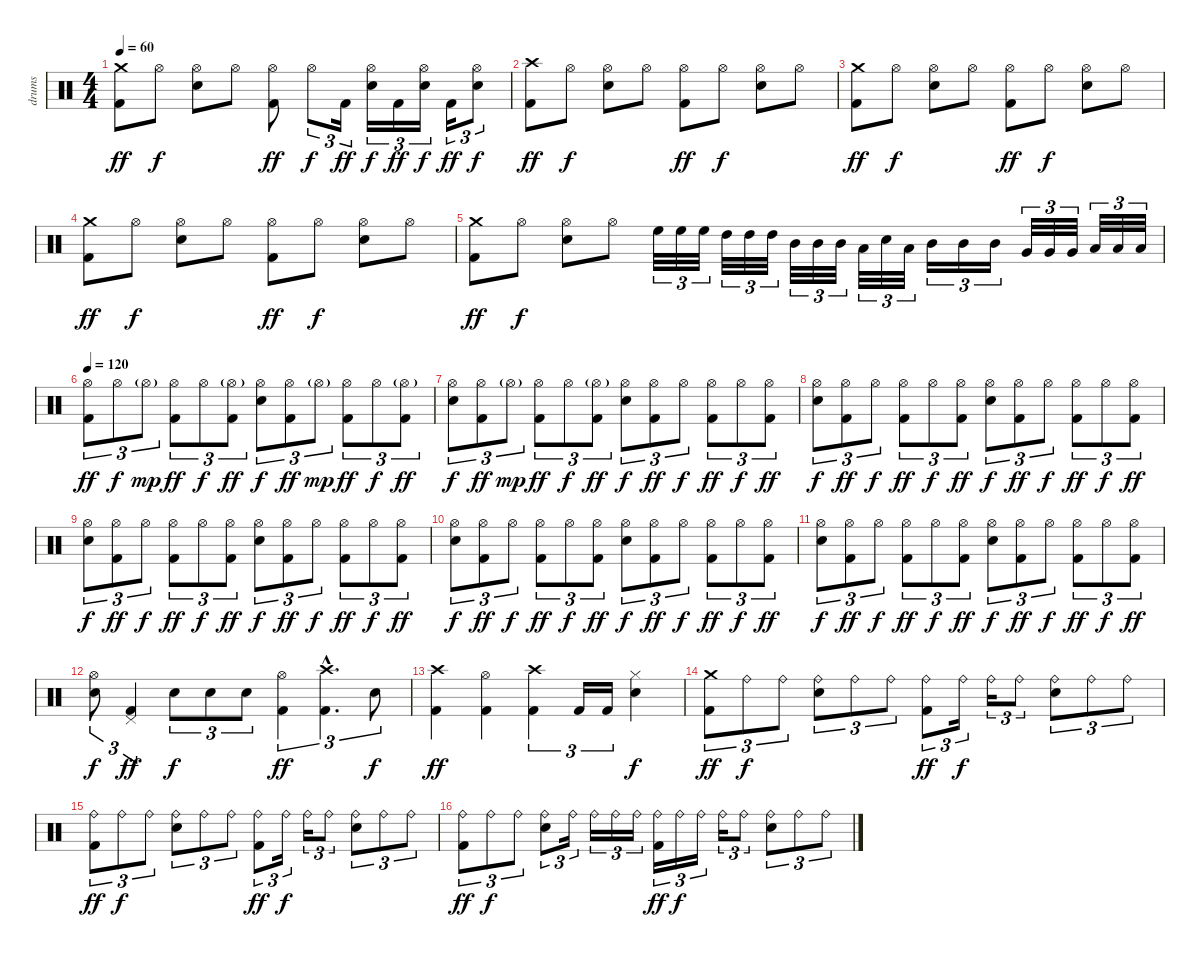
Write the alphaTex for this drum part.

\track ("drums" "drums") {instrument percussion}
\staff {score}
\articulation defaults
\ts (4 4)
\tempo 60
\clef neutral
\ks c
("Crash medium (hit)" "Kick (hit) 2").8{dy ff} "Hi-Hat (open)".8{dy f} ("Hi-Hat (open)" "Electric Snare (hit)").8 "Hi-Hat (open)".8 ("Hi-Hat (open)" "Kick (hit) 2").8{dy ff} "Hi-Hat (open)".8{tu (3 2) dy f} "Kick (hit) 2".16{tu (3 2) dy ff} ("Hi-Hat (open)" "Electric Snare (hit)").16{tu (3 2) dy f} "Kick (hit) 2".16{tu (3 2) dy ff} ("Hi-Hat (open)" "Electric Snare (hit)").16{tu (3 2) dy f} "Kick (hit) 2".16{tu (3 2) dy ff} ("Hi-Hat (open)" "Electric Snare (hit)").8{tu (3 2) dy f} |
("Crash high (hit)" "Kick (hit) 2").8{dy ff} "Hi-Hat (open)".8{dy f} ("Hi-Hat (open)" "Electric Snare (hit)").8 "Hi-Hat (open)".8 ("Hi-Hat (open)" "Kick (hit) 2").8{dy ff} "Hi-Hat (open)".8{dy f} ("Hi-Hat (open)" "Electric Snare (hit)").8 "Hi-Hat (open)".8 |
("Crash medium (hit)" "Kick (hit) 2").8{dy ff} "Hi-Hat (open)".8{dy f} ("Hi-Hat (open)" "Electric Snare (hit)").8 "Hi-Hat (open)".8 ("Hi-Hat (open)" "Kick (hit) 2").8{dy ff} "Hi-Hat (open)".8{dy f} ("Hi-Hat (open)" "Electric Snare (hit)").8 "Hi-Hat (open)".8 |
("Crash medium (hit)" "Kick (hit) 2").8{dy ff} "Hi-Hat (open)".8{dy f} ("Hi-Hat (open)" "Electric Snare (hit)").8 "Hi-Hat (open)".8 ("Hi-Hat (open)" "Kick (hit) 2").8{dy ff} "Hi-Hat (open)".8{dy f} ("Hi-Hat (open)" "Electric Snare (hit)").8 "Hi-Hat (open)".8 |
("Crash medium (hit)" "Kick (hit) 2").8{dy ff} "Hi-Hat (open)".8{dy f} ("Hi-Hat (open)" "Electric Snare (hit)").8 "Hi-Hat (open)".8 "High Floor Tom (hit)".32{tu (3 2)} "High Floor Tom (hit)".32{tu (3 2)} "High Floor Tom (hit)".32{tu (3 2)} "High Tom (hit)".32{tu (3 2)} "High Tom (hit)".32{tu (3 2)} "High Tom (hit)".32{tu (3 2)} "Mid Tom (hit)".32{tu (3 2)} "Mid Tom (hit)".32{tu (3 2)} "Mid Tom (hit)".32{tu (3 2)} "Low Tom (hit)".32{tu (3 2)} "Electric Snare (hit)".32{tu (3 2)} "Low Tom (hit)".32{tu (3 2)} "Mid Tom (hit)".16{tu (3 2)} "Mid Tom (hit)".16{tu (3 2)} "Mid Tom (hit)".16{tu (3 2)} "Very Low Tom (hit)".32{tu (3 2)} "Very Low Tom (hit)".32{tu (3 2)} "Very Low Tom (hit)".32{tu (3 2)} "Low Floor Tom (hit)".32{tu (3 2)} "Low Floor Tom (hit)".32{tu (3 2)} "Low Floor Tom (hit)".32{tu (3 2)} |
\tempo 120
("Hi-Hat (open)" "Kick (hit) 2").8{tu (3 2) dy ff} "Hi-Hat (open)".8{tu (3 2) dy f} "Hi-Hat (open)"{g}.8{tu (3 2) dy mp} ("Hi-Hat (open)" "Kick (hit) 2").8{tu (3 2) dy ff} "Hi-Hat (open)".8{tu (3 2) dy f} ("Hi-Hat (open)"{g} "Kick (hit) 2").8{tu (3 2) dy ff} ("Hi-Hat (open)" "Electric Snare (hit)").8{tu (3 2) dy f} ("Hi-Hat (open)" "Kick (hit) 2").8{tu (3 2) dy ff} "Hi-Hat (open)"{g}.8{tu (3 2) dy mp} ("Hi-Hat (open)" "Kick (hit) 2").8{tu (3 2) dy ff} "Hi-Hat (open)".8{tu (3 2) dy f} ("Hi-Hat (open)"{g} "Kick (hit) 2").8{tu (3 2) dy ff} |
("Hi-Hat (open)" "Electric Snare (hit)").8{tu (3 2) dy f} ("Hi-Hat (open)" "Kick (hit) 2").8{tu (3 2) dy ff} "Hi-Hat (open)"{g}.8{tu (3 2) dy mp} ("Hi-Hat (open)" "Kick (hit) 2").8{tu (3 2) dy ff} "Hi-Hat (open)".8{tu (3 2) dy f} ("Hi-Hat (open)"{g} "Kick (hit) 2").8{tu (3 2) dy ff} ("Hi-Hat (open)" "Electric Snare (hit)").8{tu (3 2) dy f} ("Hi-Hat (open)" "Kick (hit) 2").8{tu (3 2) dy ff} "Hi-Hat (open)".8{tu (3 2) dy f} ("Hi-Hat (open)" "Kick (hit) 2").8{tu (3 2) dy ff} "Hi-Hat (open)".8{tu (3 2) dy f} ("Hi-Hat (open)" "Kick (hit) 2").8{tu (3 2) dy ff} |
("Hi-Hat (open)" "Electric Snare (hit)").8{tu (3 2) dy f} ("Hi-Hat (open)" "Kick (hit) 2").8{tu (3 2) dy ff} "Hi-Hat (open)".8{tu (3 2) dy f} ("Hi-Hat (open)" "Kick (hit) 2").8{tu (3 2) dy ff} "Hi-Hat (open)".8{tu (3 2) dy f} ("Hi-Hat (open)" "Kick (hit) 2").8{tu (3 2) dy ff} ("Hi-Hat (open)" "Electric Snare (hit)").8{tu (3 2) dy f} ("Hi-Hat (open)" "Kick (hit) 2").8{tu (3 2) dy ff} "Hi-Hat (open)".8{tu (3 2) dy f} ("Hi-Hat (open)" "Kick (hit) 2").8{tu (3 2) dy ff} "Hi-Hat (open)".8{tu (3 2) dy f} ("Hi-Hat (open)" "Kick (hit) 2").8{tu (3 2) dy ff} |
("Hi-Hat (open)" "Electric Snare (hit)").8{tu (3 2) dy f} ("Hi-Hat (open)" "Kick (hit) 2").8{tu (3 2) dy ff} "Hi-Hat (open)".8{tu (3 2) dy f} ("Hi-Hat (open)" "Kick (hit) 2").8{tu (3 2) dy ff} "Hi-Hat (open)".8{tu (3 2) dy f} ("Hi-Hat (open)" "Kick (hit) 2").8{tu (3 2) dy ff} ("Hi-Hat (open)" "Electric Snare (hit)").8{tu (3 2) dy f} ("Hi-Hat (open)" "Kick (hit) 2").8{tu (3 2) dy ff} "Hi-Hat (open)".8{tu (3 2) dy f} ("Hi-Hat (open)" "Kick (hit) 2").8{tu (3 2) dy ff} "Hi-Hat (open)".8{tu (3 2) dy f} ("Hi-Hat (open)" "Kick (hit) 2").8{tu (3 2) dy ff} |
("Hi-Hat (open)" "Electric Snare (hit)").8{tu (3 2) dy f} ("Hi-Hat (open)" "Kick (hit) 2").8{tu (3 2) dy ff} "Hi-Hat (open)".8{tu (3 2) dy f} ("Hi-Hat (open)" "Kick (hit) 2").8{tu (3 2) dy ff} "Hi-Hat (open)".8{tu (3 2) dy f} ("Hi-Hat (open)" "Kick (hit) 2").8{tu (3 2) dy ff} ("Hi-Hat (open)" "Electric Snare (hit)").8{tu (3 2) dy f} ("Hi-Hat (open)" "Kick (hit) 2").8{tu (3 2) dy ff} "Hi-Hat (open)".8{tu (3 2) dy f} ("Hi-Hat (open)" "Kick (hit) 2").8{tu (3 2) dy ff} "Hi-Hat (open)".8{tu (3 2) dy f} ("Hi-Hat (open)" "Kick (hit) 2").8{tu (3 2) dy ff} |
("Hi-Hat (open)" "Electric Snare (hit)").8{tu (3 2) dy f} ("Hi-Hat (open)" "Kick (hit) 2").8{tu (3 2) dy ff} "Hi-Hat (open)".8{tu (3 2) dy f} ("Hi-Hat (open)" "Kick (hit) 2").8{tu (3 2) dy ff} "Hi-Hat (open)".8{tu (3 2) dy f} ("Hi-Hat (open)" "Kick (hit) 2").8{tu (3 2) dy ff} ("Hi-Hat (open)" "Electric Snare (hit)").8{tu (3 2) dy f} ("Hi-Hat (open)" "Kick (hit) 2").8{tu (3 2) dy ff} "Hi-Hat (open)".8{tu (3 2) dy f} ("Hi-Hat (open)" "Kick (hit) 2").8{tu (3 2) dy ff} "Hi-Hat (open)".8{tu (3 2) dy f} ("Hi-Hat (open)" "Kick (hit) 2").8{tu (3 2) dy ff} |
("Hi-Hat (open)" "Electric Snare (hit)").8{tu (3 2) dy f} ("Pedal Hi-Hat (hit)" "Kick (hit) 2").4{tu (3 2) dy ff} "Electric Snare (hit)".8{tu (3 2) dy f} "Electric Snare (hit)".8{tu (3 2)} "Electric Snare (hit)".8{tu (3 2)} ("Hi-Hat (open)" "Kick (hit) 2").4{tu (3 2) dy ff} ("Crash high (hit)"{hac} "Kick (hit) 2"{hac}).4{d tu (3 2)} "Electric Snare (hit)".8{tu (3 2) dy f} |
("Crash high (hit)" "Kick (hit) 2").4{dy ff} ("Hi-Hat (open)" "Kick (hit) 2").4 ("Crash high (hit)" "Kick (hit) 2").4{tu (3 2)} "Kick (hit) 2".16{tu (3 2)} "Kick (hit) 2".16{tu (3 2)} ("Hi-Hat (closed)" "Electric Snare (hit)").4{dy f} |
("Crash medium (hit)" "Kick (hit) 2").8{tu (3 2) dy ff} "Ride (bell)".8{tu (3 2) dy f} "Ride (bell)".8{tu (3 2)} ("Ride (bell)" "Electric Snare (hit)").8{tu (3 2)} "Ride (bell)".8{tu (3 2)} "Ride (bell)".8{tu (3 2)} ("Ride (bell)" "Kick (hit) 2").8{tu (3 2) dy ff} "Ride (bell)".16{tu (3 2) dy f} "Ride (bell)".16{tu (3 2)} "Ride (bell)".8{tu (3 2)} ("Ride (bell)" "Electric Snare (hit)").8{tu (3 2)} "Ride (bell)".8{tu (3 2)} "Ride (bell)".8{tu (3 2)} |
("Ride (bell)" "Kick (hit) 2").8{tu (3 2) dy ff} "Ride (bell)".8{tu (3 2) dy f} "Ride (bell)".8{tu (3 2)} ("Ride (bell)" "Electric Snare (hit)").8{tu (3 2)} "Ride (bell)".8{tu (3 2)} "Ride (bell)".8{tu (3 2)} ("Ride (bell)" "Kick (hit) 2").8{tu (3 2) dy ff} "Ride (bell)".16{tu (3 2) dy f} "Ride (bell)".16{tu (3 2)} "Ride (bell)".8{tu (3 2)} ("Ride (bell)" "Electric Snare (hit)").8{tu (3 2)} "Ride (bell)".8{tu (3 2)} "Ride (bell)".8{tu (3 2)} |
("Ride (bell)" "Kick (hit) 2").8{tu (3 2) dy ff} "Ride (bell)".8{tu (3 2) dy f} "Ride (bell)".8{tu (3 2)} ("Ride (bell)" "Electric Snare (hit)").8{tu (3 2)} "Ride (bell)".16{tu (3 2)} "Ride (bell)".16{tu (3 2)} "Ride (bell)".16{tu (3 2)} "Ride (bell)".16{tu (3 2)} ("Ride (bell)" "Kick (hit) 2").16{tu (3 2) dy ff} "Ride (bell)".16{tu (3 2) dy f} "Ride (bell)".16{tu (3 2)} "Ride (bell)".16{tu (3 2)} "Ride (bell)".8{tu (3 2)} ("Ride (bell)" "Electric Snare (hit)").8{tu (3 2)} "Ride (bell)".8{tu (3 2)} "Ride (bell)".8{tu (3 2)}
